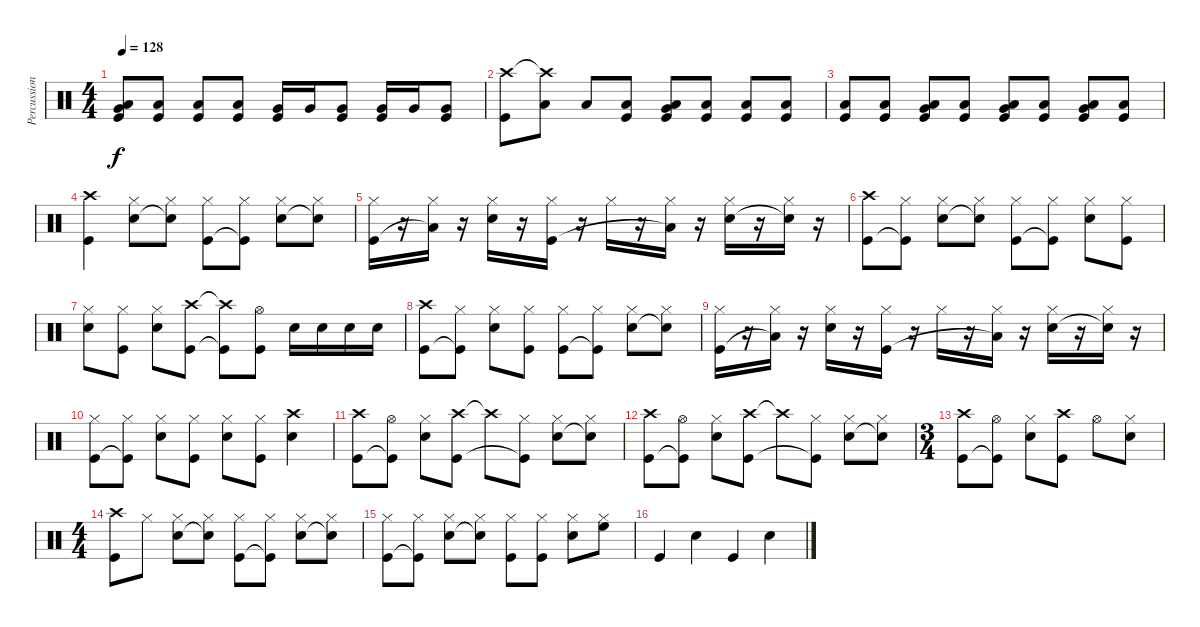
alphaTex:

\track ("Percussion" "Percussion") {instrument percussion}
\staff {score}
\articulation defaults
\ts (4 4)
\tempo 128
\clef neutral
\ks c
("Very Low Tom (hit)" "Low Floor Tom (hit)" "Kick (hit)").8{dy f} ("Low Floor Tom (hit)" "Kick (hit)").8 ("Low Floor Tom (hit)" "Kick (hit)").8 ("Low Floor Tom (hit)" "Kick (hit)").8 ("Very Low Tom (hit)" "Kick (hit)").16 "Very Low Tom (hit)".16 ("Very Low Tom (hit)" "Kick (hit)").8 ("Very Low Tom (hit)" "Kick (hit)").16 "Very Low Tom (hit)".16 ("Very Low Tom (hit)" "Kick (hit)").8 |
("Crash high (hit)" "Kick (hit)").8 ("Crash high (hit)"{t} "Low Floor Tom (hit)").8 "Low Floor Tom (hit)".8 ("Low Floor Tom (hit)" "Kick (hit)").8 ("Very Low Tom (hit)" "Low Floor Tom (hit)" "Kick (hit)").8 ("Low Floor Tom (hit)" "Kick (hit)").8 ("Low Floor Tom (hit)" "Kick (hit)").8 ("Low Floor Tom (hit)" "Kick (hit)").8 |
("Low Floor Tom (hit)" "Kick (hit)").8 ("Low Floor Tom (hit)" "Kick (hit)").8 ("Very Low Tom (hit)" "Low Floor Tom (hit)" "Kick (hit)").8 ("Low Floor Tom (hit)" "Kick (hit)").8 ("Very Low Tom (hit)" "Low Floor Tom (hit)" "Kick (hit)").8 ("Low Floor Tom (hit)" "Kick (hit)").8 ("Very Low Tom (hit)" "Low Floor Tom (hit)" "Kick (hit)").8 ("Low Floor Tom (hit)" "Kick (hit)").8 |
("Crash high (hit)" "Kick (hit)").4 ("Hi-Hat (closed)" "Snare (hit) 2").8 ("Hi-Hat (closed)" "Snare (hit) 2"{t}).8 ("Hi-Hat (closed)" "Kick (hit)").8 ("Hi-Hat (closed)" "Kick (hit)"{t}).8 ("Hi-Hat (closed)" "Snare (hit) 2").8 ("Hi-Hat (closed)" "Snare (hit) 2"{t}).8 |
("Hi-Hat (closed)" "Kick (hit)").16 r.16 ("Hi-Hat (closed)" "Low Floor Tom (hit)"{t}).16 r.16 ("Hi-Hat (closed)" "Snare (hit) 2").16 r.16 ("Hi-Hat (closed)" "Kick (hit)").16 r.16 "Hi-Hat (closed)".16 r.16 ("Hi-Hat (closed)" "Low Floor Tom (hit)"{t}).16 r.16 ("Hi-Hat (closed)" "Snare (hit) 2").16 r.16 ("Hi-Hat (closed)" "Electric Snare (hit)"{t}).16 r.16 |
("Crash high (hit)" "Kick (hit)").8 ("Hi-Hat (closed)" "Kick (hit)"{t}).8 ("Hi-Hat (closed)" "Snare (hit) 2").8 ("Hi-Hat (closed)" "Snare (hit) 2"{t}).8 ("Hi-Hat (closed)" "Kick (hit)").8 ("Hi-Hat (closed)" "Kick (hit)"{t}).8 ("Hi-Hat (closed)" "Snare (hit) 2").8 ("Hi-Hat (closed)" "Kick (hit)").8 |
("Hi-Hat (closed)" "Snare (hit) 2").8 ("Hi-Hat (closed)" "Kick (hit)").8 ("Hi-Hat (closed)" "Snare (hit) 2").8 ("Crash high (hit)" "Kick (hit)").8 ("Crash high (hit)"{t} "Kick (hit)"{t}).8 ("Hi-Hat (open)" "Kick (hit)").8 "Snare (hit) 2".16 "Snare (hit) 2".16 "Snare (hit) 2".16 "Snare (hit) 2".16 |
("Crash high (hit)" "Kick (hit)").8 ("Hi-Hat (closed)" "Kick (hit)"{t}).8 ("Hi-Hat (closed)" "Snare (hit) 2").8 ("Hi-Hat (closed)" "Kick (hit)").8 ("Hi-Hat (closed)" "Kick (hit)").8 ("Hi-Hat (closed)" "Kick (hit)"{t}).8 ("Hi-Hat (closed)" "Snare (hit) 2").8 ("Hi-Hat (closed)" "Snare (hit) 2"{t}).8 |
("Hi-Hat (closed)" "Kick (hit)").16 r.16 ("Hi-Hat (closed)" "Low Floor Tom (hit)"{t}).16 r.16 ("Hi-Hat (closed)" "Snare (hit) 2").16 r.16 ("Hi-Hat (closed)" "Kick (hit)").16 r.16 "Hi-Hat (closed)".16 r.16 ("Hi-Hat (closed)" "Low Floor Tom (hit)"{t}).16 r.16 ("Hi-Hat (closed)" "Snare (hit) 2").16 r.16 ("Hi-Hat (closed)" "Electric Snare (hit)"{t}).16 r.16 |
("Hi-Hat (closed)" "Kick (hit)").8 ("Hi-Hat (closed)" "Kick (hit)"{t}).8 ("Hi-Hat (closed)" "Snare (hit) 2").8 ("Hi-Hat (closed)" "Kick (hit)").8 ("Hi-Hat (closed)" "Snare (hit) 2").8 ("Hi-Hat (closed)" "Kick (hit)").8 ("Crash high (hit)" "Snare (hit) 2").4 |
("Crash high (hit)" "Kick (hit)").8 ("Hi-Hat (open)" "Kick (hit)"{t}).8 ("Hi-Hat (closed)" "Snare (hit) 2").8 ("Crash high (hit)" "Kick (hit)").8 "Crash high (hit)"{t}.8 ("Hi-Hat (closed)" "Kick (hit)"{t}).8 ("Hi-Hat (closed)" "Snare (hit) 2").8 ("Hi-Hat (closed)" "Snare (hit) 2"{t}).8 |
("Crash high (hit)" "Kick (hit)").8 ("Hi-Hat (open)" "Kick (hit)"{t}).8 ("Hi-Hat (closed)" "Snare (hit) 2").8 ("Crash high (hit)" "Kick (hit)").8 "Crash high (hit)"{t}.8 ("Hi-Hat (closed)" "Kick (hit)"{t}).8 ("Hi-Hat (closed)" "Snare (hit) 2").8 ("Hi-Hat (closed)" "Snare (hit) 2"{t}).8 |
\ts (3 4)
("Crash high (hit)" "Kick (hit)").8 ("Hi-Hat (open)" "Kick (hit)"{t}).8 ("Hi-Hat (closed)" "Snare (hit) 2").8 ("Crash high (hit)" "Kick (hit)").8 "Hi-Hat (open)".8 ("Hi-Hat (closed)" "Snare (hit) 2").8 |
\ts (4 4)
("Crash high (hit)" "Kick (hit)").8 "Hi-Hat (closed)".8 ("Hi-Hat (closed)" "Snare (hit) 2").8 ("Hi-Hat (closed)" "Snare (hit) 2"{t}).8 ("Hi-Hat (closed)" "Kick (hit)").8 ("Hi-Hat (closed)" "Kick (hit)"{t}).8 ("Hi-Hat (closed)" "Snare (hit) 2").8 ("Hi-Hat (closed)" "Snare (hit) 2"{t}).8 |
("Hi-Hat (closed)" "Kick (hit)").8 ("Hi-Hat (closed)" "Kick (hit)"{t}).8 ("Hi-Hat (closed)" "Snare (hit) 2").8 ("Hi-Hat (closed)" "Snare (hit) 2"{t}).8 ("Hi-Hat (closed)" "Kick (hit)").8 ("Hi-Hat (closed)" "Kick (hit)").8 ("Hi-Hat (closed)" "Snare (hit) 2").8 ("Hi-Hat (closed)" "High Floor Tom (hit)").8 |
"Kick (hit)".4 "Snare (hit) 2".4 "Kick (hit)".4 "Snare (hit) 2".4
